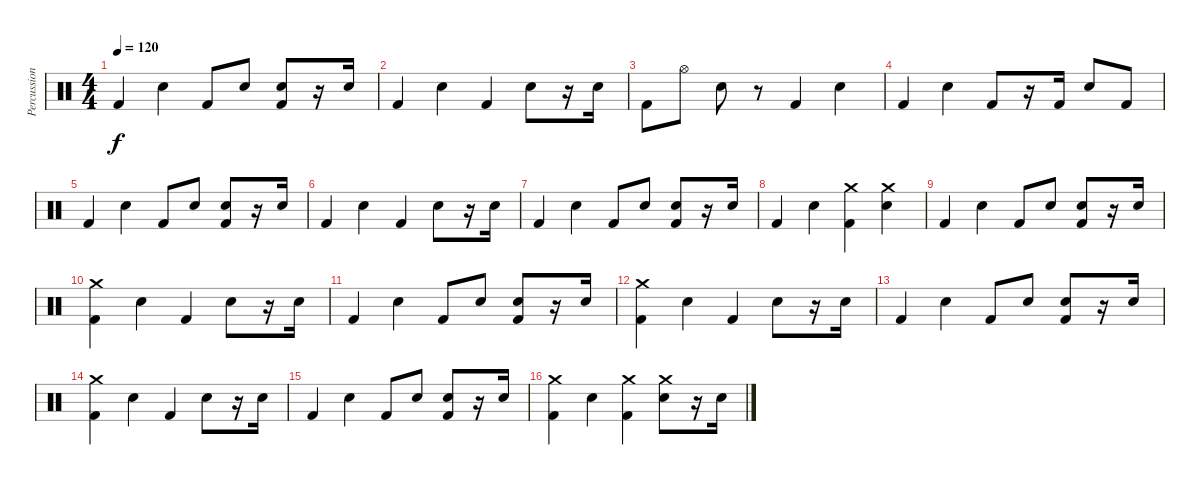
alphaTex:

\track ("Percussion" "Percussion") {instrument percussion}
\staff {score}
\articulation defaults
\ts (4 4)
\tempo 120
\clef neutral
\ks c "Kick (hit) 2".4{dy f} "Hand Clap (hit)".4 "Kick (hit) 2".8 "Hand Clap (hit)".8
("Kick (hit) 2" "Hand Clap (hit)").8 r.16 "Hand Clap (hit)".16 |
"Kick (hit) 2".4 "Hand Clap (hit)".4 "Kick (hit) 2".4 "Hand Clap (hit)".8 r.16 "Hand Clap (hit)".16 |
"Kick (hit) 2".8 "Hi-Hat (open)".8 "Hand Clap (hit)".8 r.8 "Kick (hit) 2".4 "Hand Clap (hit)".4 |
"Kick (hit) 2".4 "Hand Clap (hit)".4 "Kick (hit) 2".8 r.16 "Kick (hit) 2".16 "Hand Clap (hit)".8 "Kick (hit) 2".8 |
"Kick (hit) 2".4 "Hand Clap (hit)".4 "Kick (hit) 2".8 "Hand Clap (hit)".8 ("Kick (hit) 2" "Hand Clap (hit)").8 r.16 "Hand Clap (hit)".16 |
"Kick (hit) 2".4 "Hand Clap (hit)".4 "Kick (hit) 2".4 "Hand Clap (hit)".8 r.16 "Hand Clap (hit)".16 |
"Kick (hit) 2".4 "Hand Clap (hit)".4 "Kick (hit) 2".8 "Hand Clap (hit)".8 ("Kick (hit) 2" "Hand Clap (hit)").8 r.16 "Hand Clap (hit)".16 |
"Kick (hit) 2".4 "Hand Clap (hit)".4 ("Crash medium (hit)" "Kick (hit) 2").4 ("Crash medium (hit)" "Hand Clap (hit)").4 |
"Kick (hit) 2".4 "Hand Clap (hit)".4 "Kick (hit) 2".8 "Hand Clap (hit)".8 ("Kick (hit) 2" "Hand Clap (hit)").8 r.16 "Hand Clap (hit)".16 |
("Kick (hit) 2" "Crash medium (hit)").4 "Hand Clap (hit)".4 "Kick (hit) 2".4 "Hand Clap (hit)".8 r.16 "Hand Clap (hit)".16 |
"Kick (hit) 2".4 "Hand Clap (hit)".4 "Kick (hit) 2".8 "Hand Clap (hit)".8 ("Kick (hit) 2" "Hand Clap (hit)").8 r.16 "Hand Clap (hit)".16 |
("Kick (hit) 2" "Crash medium (hit)").4 "Hand Clap (hit)".4 "Kick (hit) 2".4 "Hand Clap (hit)".8 r.16 "Hand Clap (hit)".16 |
"Kick (hit) 2".4 "Hand Clap (hit)".4 "Kick (hit) 2".8 "Hand Clap (hit)".8 ("Kick (hit) 2" "Hand Clap (hit)").8 r.16 "Hand Clap (hit)".16 |
("Kick (hit) 2" "Crash medium (hit)").4 "Hand Clap (hit)".4 "Kick (hit) 2".4 "Hand Clap (hit)".8 r.16 "Hand Clap (hit)".16 |
"Kick (hit) 2".4 "Hand Clap (hit)".4 "Kick (hit) 2".8 "Hand Clap (hit)".8 ("Kick (hit) 2" "Hand Clap (hit)").8 r.16 "Hand Clap (hit)".16 |
("Kick (hit) 2" "Crash medium (hit)").4 "Hand Clap (hit)".4 ("Kick (hit) 2" "Crash medium (hit)").4 ("Hand Clap (hit)" "Crash medium (hit)").8 r.16 "Hand Clap (hit)".16
